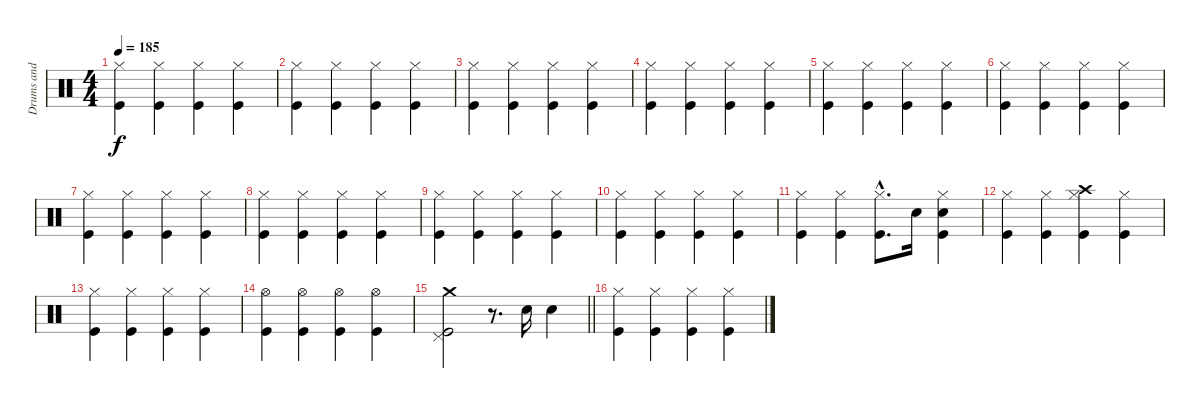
\track ("Drums and percussion" "Drums and ") {instrument percussion}
\staff {score}
\articulation defaults
\ts (4 4)
\tempo 185
\clef neutral
\ks c
("Hi-Hat (closed)" "Kick (hit)").4{dy f} ("Hi-Hat (closed)" "Kick (hit)").4 ("Hi-Hat (closed)" "Kick (hit)").4 ("Hi-Hat (closed)" "Kick (hit)").4 |
("Hi-Hat (closed)" "Kick (hit)").4 ("Hi-Hat (closed)" "Kick (hit)").4 ("Hi-Hat (closed)" "Kick (hit)").4 ("Hi-Hat (closed)" "Kick (hit)").4 |
("Hi-Hat (closed)" "Kick (hit)").4 ("Hi-Hat (closed)" "Kick (hit)").4 ("Hi-Hat (closed)" "Kick (hit)").4 ("Hi-Hat (closed)" "Kick (hit)").4 |
("Hi-Hat (closed)" "Kick (hit)").4 ("Hi-Hat (closed)" "Kick (hit)").4 ("Hi-Hat (closed)" "Kick (hit)").4 ("Hi-Hat (closed)" "Kick (hit)").4 |
("Hi-Hat (closed)" "Kick (hit)").4 ("Hi-Hat (closed)" "Kick (hit)").4 ("Hi-Hat (closed)" "Kick (hit)").4 ("Hi-Hat (closed)" "Kick (hit)").4 |
("Hi-Hat (closed)" "Kick (hit)").4 ("Hi-Hat (closed)" "Kick (hit)").4 ("Hi-Hat (closed)" "Kick (hit)").4 ("Hi-Hat (closed)" "Kick (hit)").4 |
("Hi-Hat (closed)" "Kick (hit)").4 ("Hi-Hat (closed)" "Kick (hit)").4 ("Hi-Hat (closed)" "Kick (hit)").4 ("Hi-Hat (closed)" "Kick (hit)").4 |
("Hi-Hat (closed)" "Kick (hit)").4 ("Hi-Hat (closed)" "Kick (hit)").4 ("Hi-Hat (closed)" "Kick (hit)").4 ("Hi-Hat (closed)" "Kick (hit)").4 |
("Hi-Hat (closed)" "Kick (hit)").4 ("Hi-Hat (closed)" "Kick (hit)").4 ("Hi-Hat (closed)" "Kick (hit)").4 ("Hi-Hat (closed)" "Kick (hit)").4 |
("Hi-Hat (closed)" "Kick (hit)").4 ("Hi-Hat (closed)" "Kick (hit)").4 ("Hi-Hat (closed)" "Kick (hit)").4 ("Hi-Hat (closed)" "Kick (hit)").4 |
("Hi-Hat (closed)" "Kick (hit)").4 ("Hi-Hat (closed)" "Kick (hit)").4 ("Hi-Hat (closed)"{hac} "Kick (hit)"{hac}).8{d} "Snare (hit) 2".16 ("Hi-Hat (closed)" "Snare (hit) 2" "Kick (hit)").4 |
("Hi-Hat (closed)" "Kick (hit)").4 ("Hi-Hat (closed)" "Kick (hit)").4 ("Hi-Hat (closed)" "Crash high (hit)" "Kick (hit)").4 ("Hi-Hat (closed)" "Kick (hit)").4 |
("Hi-Hat (closed)" "Kick (hit)").4 ("Hi-Hat (closed)" "Kick (hit)").4 ("Hi-Hat (closed)" "Kick (hit)").4 ("Hi-Hat (closed)" "Kick (hit)").4 |
("Hi-Hat (open)" "Kick (hit)").4 ("Hi-Hat (open)" "Kick (hit)").4 ("Hi-Hat (open)" "Kick (hit)").4 ("Hi-Hat (open)" "Kick (hit)").4 |
\barLineRight lightlight
("Pedal Hi-Hat (hit)" "Crash medium (hit)" "Kick (hit)").2 r.8{d} "Snare (hit) 2".16 "Snare (hit) 2".4 |
("Hi-Hat (closed)" "Kick (hit)").4 ("Hi-Hat (closed)" "Kick (hit)").4 ("Hi-Hat (closed)" "Kick (hit)").4 ("Hi-Hat (closed)" "Kick (hit)").4
